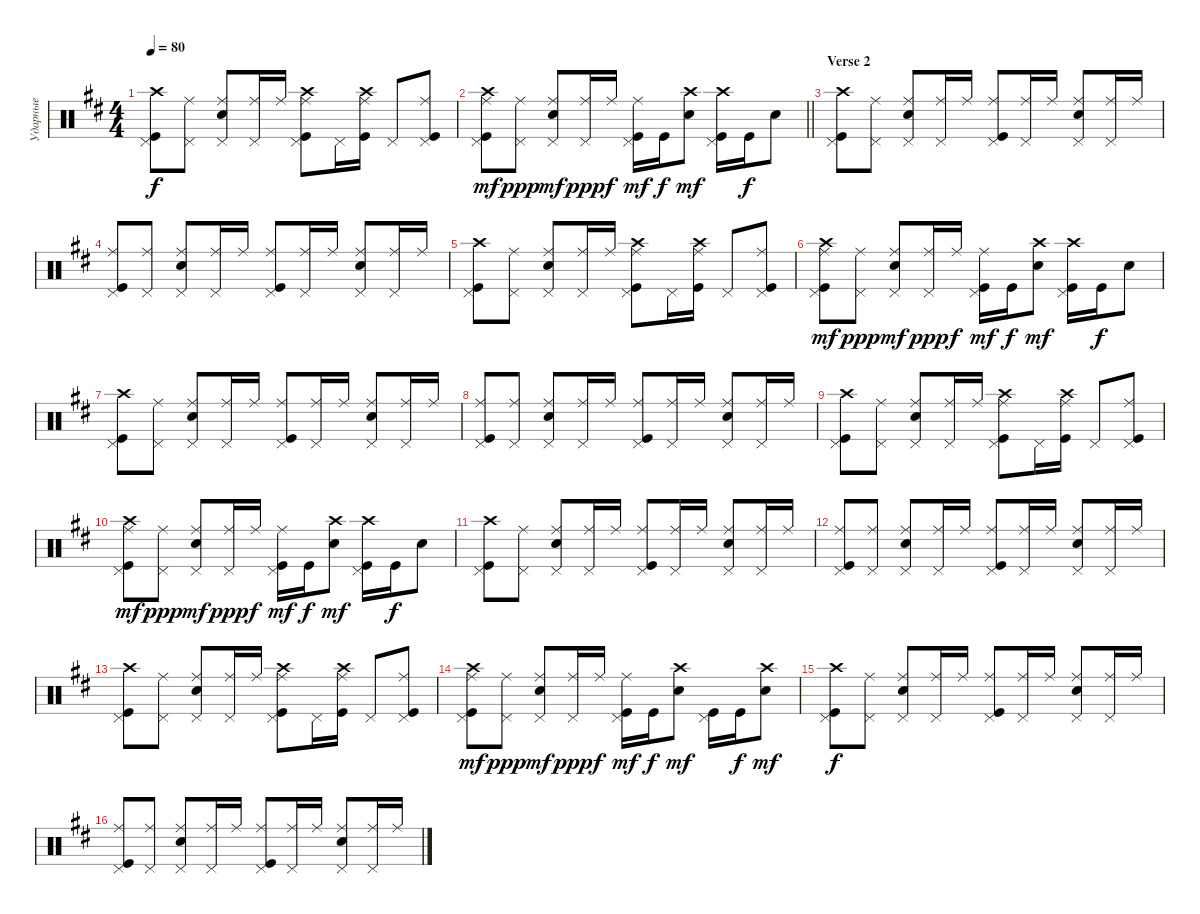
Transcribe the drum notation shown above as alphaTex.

\track ("Ударные" "Ударные") {instrument percussion}
\staff {score}
\articulation defaults
\ts (4 4)
\tempo 80
\clef neutral
\ks bminor
("Crash high (hit)" "Kick (hit)" "Pedal Hi-Hat (hit)").8{dy f} ("Ride (middle)" "Pedal Hi-Hat (hit)").8 ("Snare (hit) 2" "Ride (middle)" "Pedal Hi-Hat (hit)").8 ("Ride (middle)" "Pedal Hi-Hat (hit)").16 "Ride (middle)".16 ("Kick (hit)" "Crash high (hit)" "Pedal Hi-Hat (hit)" "Ride (middle)").8 "Pedal Hi-Hat (hit)".16 ("Kick (hit)" "Crash high (hit)" "Ride (middle)").16 "Pedal Hi-Hat (hit)".8 ("Kick (hit)" "Ride (middle)" "Pedal Hi-Hat (hit)").8 |
\barLineRight lightlight
("Kick (hit)" "Crash high (hit)" "Pedal Hi-Hat (hit)" "Ride (middle)").8{dy mf} ("Ride (middle)" "Pedal Hi-Hat (hit)").8{dy ppp} ("Pedal Hi-Hat (hit)" "Snare (hit) 2" "Ride (middle)").8{dy mf} ("Ride (middle)" "Pedal Hi-Hat (hit)").16{dy ppp} "Ride (middle)".16{dy f} ("Kick (hit)" "Pedal Hi-Hat (hit)" "Ride (middle)").16{dy mf} "Kick (hit)".16{dy f} ("Snare (hit) 2" "Crash high (hit)").8{dy mf} ("Kick (hit)" "Pedal Hi-Hat (hit)" "Crash high (hit)").16 "Kick (hit)".16{dy f} "Snare (hit) 2".8 |
\section ("" "Verse 2")
("Crash high (hit)" "Kick (hit)" "Pedal Hi-Hat (hit)").8 ("Ride (middle)" "Pedal Hi-Hat (hit)").8 ("Snare (hit) 2" "Ride (middle)" "Pedal Hi-Hat (hit)").8 ("Ride (middle)" "Pedal Hi-Hat (hit)").16 "Ride (middle)".16 ("Kick (hit)" "Ride (middle)" "Pedal Hi-Hat (hit)").8 ("Ride (middle)" "Pedal Hi-Hat (hit)").16 "Ride (middle)".16 ("Snare (hit) 2" "Ride (middle)" "Pedal Hi-Hat (hit)").8 ("Ride (middle)" "Pedal Hi-Hat (hit)").16 "Ride (middle)".16 |
("Ride (middle)" "Kick (hit)" "Pedal Hi-Hat (hit)").8 ("Ride (middle)" "Pedal Hi-Hat (hit)").8 ("Snare (hit) 2" "Ride (middle)" "Pedal Hi-Hat (hit)").8 ("Ride (middle)" "Pedal Hi-Hat (hit)").16 "Ride (middle)".16 ("Kick (hit)" "Ride (middle)" "Pedal Hi-Hat (hit)").8 ("Ride (middle)" "Pedal Hi-Hat (hit)").16 "Ride (middle)".16 ("Snare (hit) 2" "Ride (middle)" "Pedal Hi-Hat (hit)").8 ("Ride (middle)" "Pedal Hi-Hat (hit)").16 "Ride (middle)".16 |
("Crash high (hit)" "Kick (hit)" "Pedal Hi-Hat (hit)").8 ("Ride (middle)" "Pedal Hi-Hat (hit)").8 ("Snare (hit) 2" "Ride (middle)" "Pedal Hi-Hat (hit)").8 ("Ride (middle)" "Pedal Hi-Hat (hit)").16 "Ride (middle)".16 ("Kick (hit)" "Crash high (hit)" "Pedal Hi-Hat (hit)" "Ride (middle)").8 "Pedal Hi-Hat (hit)".16 ("Kick (hit)" "Crash high (hit)" "Ride (middle)").16 "Pedal Hi-Hat (hit)".8 ("Kick (hit)" "Ride (middle)" "Pedal Hi-Hat (hit)").8 |
("Kick (hit)" "Crash high (hit)" "Pedal Hi-Hat (hit)" "Ride (middle)").8{dy mf} ("Ride (middle)" "Pedal Hi-Hat (hit)").8{dy ppp} ("Pedal Hi-Hat (hit)" "Snare (hit) 2" "Ride (middle)").8{dy mf} ("Ride (middle)" "Pedal Hi-Hat (hit)").16{dy ppp} "Ride (middle)".16{dy f} ("Kick (hit)" "Pedal Hi-Hat (hit)" "Ride (middle)").16{dy mf} "Kick (hit)".16{dy f} ("Snare (hit) 2" "Crash high (hit)").8{dy mf} ("Kick (hit)" "Pedal Hi-Hat (hit)" "Crash high (hit)").16 "Kick (hit)".16{dy f} "Snare (hit) 2".8 |
("Crash high (hit)" "Kick (hit)" "Pedal Hi-Hat (hit)").8 ("Ride (middle)" "Pedal Hi-Hat (hit)").8 ("Snare (hit) 2" "Ride (middle)" "Pedal Hi-Hat (hit)").8 ("Ride (middle)" "Pedal Hi-Hat (hit)").16 "Ride (middle)".16 ("Kick (hit)" "Ride (middle)" "Pedal Hi-Hat (hit)").8 ("Ride (middle)" "Pedal Hi-Hat (hit)").16 "Ride (middle)".16 ("Snare (hit) 2" "Ride (middle)" "Pedal Hi-Hat (hit)").8 ("Ride (middle)" "Pedal Hi-Hat (hit)").16 "Ride (middle)".16 |
("Ride (middle)" "Kick (hit)" "Pedal Hi-Hat (hit)").8 ("Ride (middle)" "Pedal Hi-Hat (hit)").8 ("Snare (hit) 2" "Ride (middle)" "Pedal Hi-Hat (hit)").8 ("Ride (middle)" "Pedal Hi-Hat (hit)").16 "Ride (middle)".16 ("Kick (hit)" "Ride (middle)" "Pedal Hi-Hat (hit)").8 ("Ride (middle)" "Pedal Hi-Hat (hit)").16 "Ride (middle)".16 ("Snare (hit) 2" "Ride (middle)" "Pedal Hi-Hat (hit)").8 ("Ride (middle)" "Pedal Hi-Hat (hit)").16 "Ride (middle)".16 |
("Crash high (hit)" "Kick (hit)" "Pedal Hi-Hat (hit)").8 ("Ride (middle)" "Pedal Hi-Hat (hit)").8 ("Snare (hit) 2" "Ride (middle)" "Pedal Hi-Hat (hit)").8 ("Ride (middle)" "Pedal Hi-Hat (hit)").16 "Ride (middle)".16 ("Kick (hit)" "Crash high (hit)" "Pedal Hi-Hat (hit)" "Ride (middle)").8 "Pedal Hi-Hat (hit)".16 ("Kick (hit)" "Crash high (hit)" "Ride (middle)").16 "Pedal Hi-Hat (hit)".8 ("Kick (hit)" "Ride (middle)" "Pedal Hi-Hat (hit)").8 |
("Kick (hit)" "Crash high (hit)" "Pedal Hi-Hat (hit)" "Ride (middle)").8{dy mf} ("Ride (middle)" "Pedal Hi-Hat (hit)").8{dy ppp} ("Pedal Hi-Hat (hit)" "Snare (hit) 2" "Ride (middle)").8{dy mf} ("Ride (middle)" "Pedal Hi-Hat (hit)").16{dy ppp} "Ride (middle)".16{dy f} ("Kick (hit)" "Pedal Hi-Hat (hit)" "Ride (middle)").16{dy mf} "Kick (hit)".16{dy f} ("Snare (hit) 2" "Crash high (hit)").8{dy mf} ("Kick (hit)" "Pedal Hi-Hat (hit)" "Crash high (hit)").16 "Kick (hit)".16{dy f} "Snare (hit) 2".8 |
("Crash high (hit)" "Kick (hit)" "Pedal Hi-Hat (hit)").8 ("Ride (middle)" "Pedal Hi-Hat (hit)").8 ("Snare (hit) 2" "Ride (middle)" "Pedal Hi-Hat (hit)").8 ("Ride (middle)" "Pedal Hi-Hat (hit)").16 "Ride (middle)".16 ("Kick (hit)" "Ride (middle)" "Pedal Hi-Hat (hit)").8 ("Ride (middle)" "Pedal Hi-Hat (hit)").16 "Ride (middle)".16 ("Snare (hit) 2" "Ride (middle)" "Pedal Hi-Hat (hit)").8 ("Ride (middle)" "Pedal Hi-Hat (hit)").16 "Ride (middle)".16 |
("Ride (middle)" "Kick (hit)" "Pedal Hi-Hat (hit)").8 ("Ride (middle)" "Pedal Hi-Hat (hit)").8 ("Snare (hit) 2" "Ride (middle)" "Pedal Hi-Hat (hit)").8 ("Ride (middle)" "Pedal Hi-Hat (hit)").16 "Ride (middle)".16 ("Kick (hit)" "Ride (middle)" "Pedal Hi-Hat (hit)").8 ("Ride (middle)" "Pedal Hi-Hat (hit)").16 "Ride (middle)".16 ("Snare (hit) 2" "Ride (middle)" "Pedal Hi-Hat (hit)").8 ("Ride (middle)" "Pedal Hi-Hat (hit)").16 "Ride (middle)".16 |
("Crash high (hit)" "Kick (hit)" "Pedal Hi-Hat (hit)").8 ("Ride (middle)" "Pedal Hi-Hat (hit)").8 ("Snare (hit) 2" "Ride (middle)" "Pedal Hi-Hat (hit)").8 ("Ride (middle)" "Pedal Hi-Hat (hit)").16 "Ride (middle)".16 ("Kick (hit)" "Crash high (hit)" "Pedal Hi-Hat (hit)" "Ride (middle)").8 "Pedal Hi-Hat (hit)".16 ("Kick (hit)" "Crash high (hit)" "Ride (middle)").16 "Pedal Hi-Hat (hit)".8 ("Kick (hit)" "Ride (middle)" "Pedal Hi-Hat (hit)").8 |
("Kick (hit)" "Crash high (hit)" "Pedal Hi-Hat (hit)" "Ride (middle)").8{dy mf} ("Ride (middle)" "Pedal Hi-Hat (hit)").8{dy ppp} ("Pedal Hi-Hat (hit)" "Snare (hit) 2" "Ride (middle)").8{dy mf} ("Ride (middle)" "Pedal Hi-Hat (hit)").16{dy ppp} "Ride (middle)".16{dy f} ("Kick (hit)" "Pedal Hi-Hat (hit)" "Ride (middle)").16{dy mf} "Kick (hit)".16{dy f} ("Snare (hit) 2" "Crash high (hit)").8{dy mf} ("Kick (hit)" "Pedal Hi-Hat (hit)").16 "Kick (hit)".16{dy f} ("Snare (hit) 2" "Crash high (hit)").8{dy mf} |
("Crash high (hit)" "Kick (hit)" "Pedal Hi-Hat (hit)").8{dy f} ("Ride (middle)" "Pedal Hi-Hat (hit)").8 ("Snare (hit) 2" "Ride (middle)" "Pedal Hi-Hat (hit)").8 ("Ride (middle)" "Pedal Hi-Hat (hit)").16 "Ride (middle)".16 ("Kick (hit)" "Ride (middle)" "Pedal Hi-Hat (hit)").8 ("Ride (middle)" "Pedal Hi-Hat (hit)").16 "Ride (middle)".16 ("Snare (hit) 2" "Ride (middle)" "Pedal Hi-Hat (hit)").8 ("Ride (middle)" "Pedal Hi-Hat (hit)").16 "Ride (middle)".16 |
("Ride (middle)" "Kick (hit)" "Pedal Hi-Hat (hit)").8 ("Ride (middle)" "Pedal Hi-Hat (hit)").8 ("Snare (hit) 2" "Ride (middle)" "Pedal Hi-Hat (hit)").8 ("Ride (middle)" "Pedal Hi-Hat (hit)").16 "Ride (middle)".16 ("Kick (hit)" "Ride (middle)" "Pedal Hi-Hat (hit)").8 ("Ride (middle)" "Pedal Hi-Hat (hit)").16 "Ride (middle)".16 ("Snare (hit) 2" "Ride (middle)" "Pedal Hi-Hat (hit)").8 ("Ride (middle)" "Pedal Hi-Hat (hit)").16 "Ride (middle)".16
